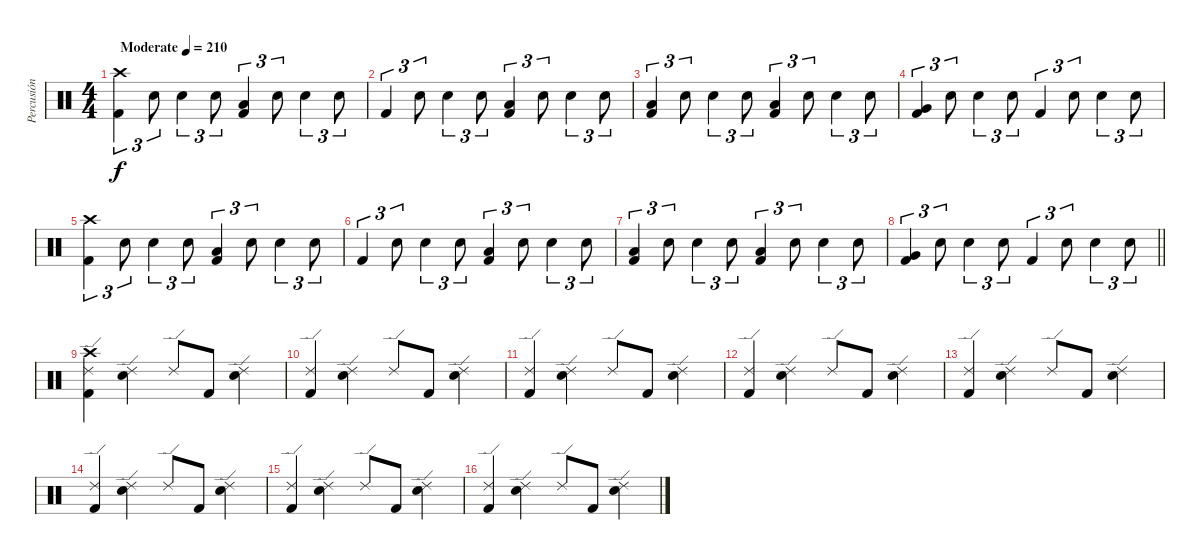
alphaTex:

\track ("Percusión" "Percusión") {instrument percussion}
\staff {score}
\articulation defaults
\ts (4 4)
\tempo (210 "Moderate")
\clef neutral
\ks c
("Crash high (hit)" "Kick (hit) 2").4{tu (3 2) dy f} "Snare (hit) 2".8{tu (3 2)} "Snare (hit) 2".4{tu (3 2)} "Snare (hit) 2".8{tu (3 2)} ("Low Floor Tom (hit)" "Kick (hit) 2").4{tu (3 2)} "Snare (hit) 2".8{tu (3 2)} "Snare (hit) 2".4{tu (3 2)} "Snare (hit) 2".8{tu (3 2)} |
"Kick (hit) 2".4{tu (3 2)} "Snare (hit) 2".8{tu (3 2)} "Snare (hit) 2".4{tu (3 2)} "Snare (hit) 2".8{tu (3 2)} ("Low Tom (hit)" "Kick (hit) 2").4{tu (3 2)} "Snare (hit) 2".8{tu (3 2)} "Snare (hit) 2".4{tu (3 2)} "Snare (hit) 2".8{tu (3 2)} |
("Low Floor Tom (hit)" "Kick (hit) 2").4{tu (3 2)} "Snare (hit) 2".8{tu (3 2)} "Snare (hit) 2".4{tu (3 2)} "Snare (hit) 2".8{tu (3 2)} ("Low Floor Tom (hit)" "Kick (hit) 2").4{tu (3 2)} "Snare (hit) 2".8{tu (3 2)} "Snare (hit) 2".4{tu (3 2)} "Snare (hit) 2".8{tu (3 2)} |
("Very Low Tom (hit)" "Kick (hit) 2").4{tu (3 2)} "Snare (hit) 2".8{tu (3 2)} "Snare (hit) 2".4{tu (3 2)} "Snare (hit) 2".8{tu (3 2)} "Kick (hit) 2".4{tu (3 2)} "Snare (hit) 2".8{tu (3 2)} "Snare (hit) 2".4{tu (3 2)} "Snare (hit) 2".8{tu (3 2)} |
("Crash high (hit)" "Kick (hit) 2").4{tu (3 2)} "Snare (hit) 2".8{tu (3 2)} "Snare (hit) 2".4{tu (3 2)} "Snare (hit) 2".8{tu (3 2)} ("Low Floor Tom (hit)" "Kick (hit) 2").4{tu (3 2)} "Snare (hit) 2".8{tu (3 2)} "Snare (hit) 2".4{tu (3 2)} "Snare (hit) 2".8{tu (3 2)} |
"Kick (hit) 2".4{tu (3 2)} "Snare (hit) 2".8{tu (3 2)} "Snare (hit) 2".4{tu (3 2)} "Snare (hit) 2".8{tu (3 2)} ("Low Tom (hit)" "Kick (hit) 2").4{tu (3 2)} "Snare (hit) 2".8{tu (3 2)} "Snare (hit) 2".4{tu (3 2)} "Snare (hit) 2".8{tu (3 2)} |
("Low Floor Tom (hit)" "Kick (hit) 2").4{tu (3 2)} "Snare (hit) 2".8{tu (3 2)} "Snare (hit) 2".4{tu (3 2)} "Snare (hit) 2".8{tu (3 2)} ("Low Floor Tom (hit)" "Kick (hit) 2").4{tu (3 2)} "Snare (hit) 2".8{tu (3 2)} "Snare (hit) 2".4{tu (3 2)} "Snare (hit) 2".8{tu (3 2)} |
\barLineRight lightlight
("Very Low Tom (hit)" "Kick (hit) 2").4{tu (3 2)} "Snare (hit) 2".8{tu (3 2)} "Snare (hit) 2".4{tu (3 2)} "Snare (hit) 2".8{tu (3 2)} "Kick (hit) 2".4{tu (3 2)} "Snare (hit) 2".8{tu (3 2)} "Snare (hit) 2".4{tu (3 2)} "Snare (hit) 2".8{tu (3 2)} |
("Crash high (hit)" "Ride (edge) 2" "Kick (hit) 2").4 ("Ride (edge) 2" "Snare (hit) 2").4 "Ride (edge) 2".8 "Kick (hit) 2".8 ("Ride (edge) 2" "Snare (hit) 2").4 |
("Ride (edge) 2" "Kick (hit) 2").4 ("Ride (edge) 2" "Snare (hit) 2").4 "Ride (edge) 2".8 "Kick (hit) 2".8 ("Ride (edge) 2" "Snare (hit) 2").4 |
("Ride (edge) 2" "Kick (hit) 2").4 ("Ride (edge) 2" "Snare (hit) 2").4 "Ride (edge) 2".8 "Kick (hit) 2".8 ("Ride (edge) 2" "Snare (hit) 2").4 |
("Ride (edge) 2" "Kick (hit) 2").4 ("Ride (edge) 2" "Snare (hit) 2").4 "Ride (edge) 2".8 "Kick (hit) 2".8 ("Ride (edge) 2" "Snare (hit) 2").4 |
("Ride (edge) 2" "Kick (hit) 2").4 ("Ride (edge) 2" "Snare (hit) 2").4 "Ride (edge) 2".8 "Kick (hit) 2".8 ("Ride (edge) 2" "Snare (hit) 2").4 |
("Ride (edge) 2" "Kick (hit) 2").4 ("Ride (edge) 2" "Snare (hit) 2").4 "Ride (edge) 2".8 "Kick (hit) 2".8 ("Ride (edge) 2" "Snare (hit) 2").4 |
("Ride (edge) 2" "Kick (hit) 2").4 ("Ride (edge) 2" "Snare (hit) 2").4 "Ride (edge) 2".8 "Kick (hit) 2".8 ("Ride (edge) 2" "Snare (hit) 2").4 |
("Ride (edge) 2" "Kick (hit) 2").4 ("Ride (edge) 2" "Snare (hit) 2").4 "Ride (edge) 2".8 "Kick (hit) 2".8 ("Ride (edge) 2" "Snare (hit) 2").4
